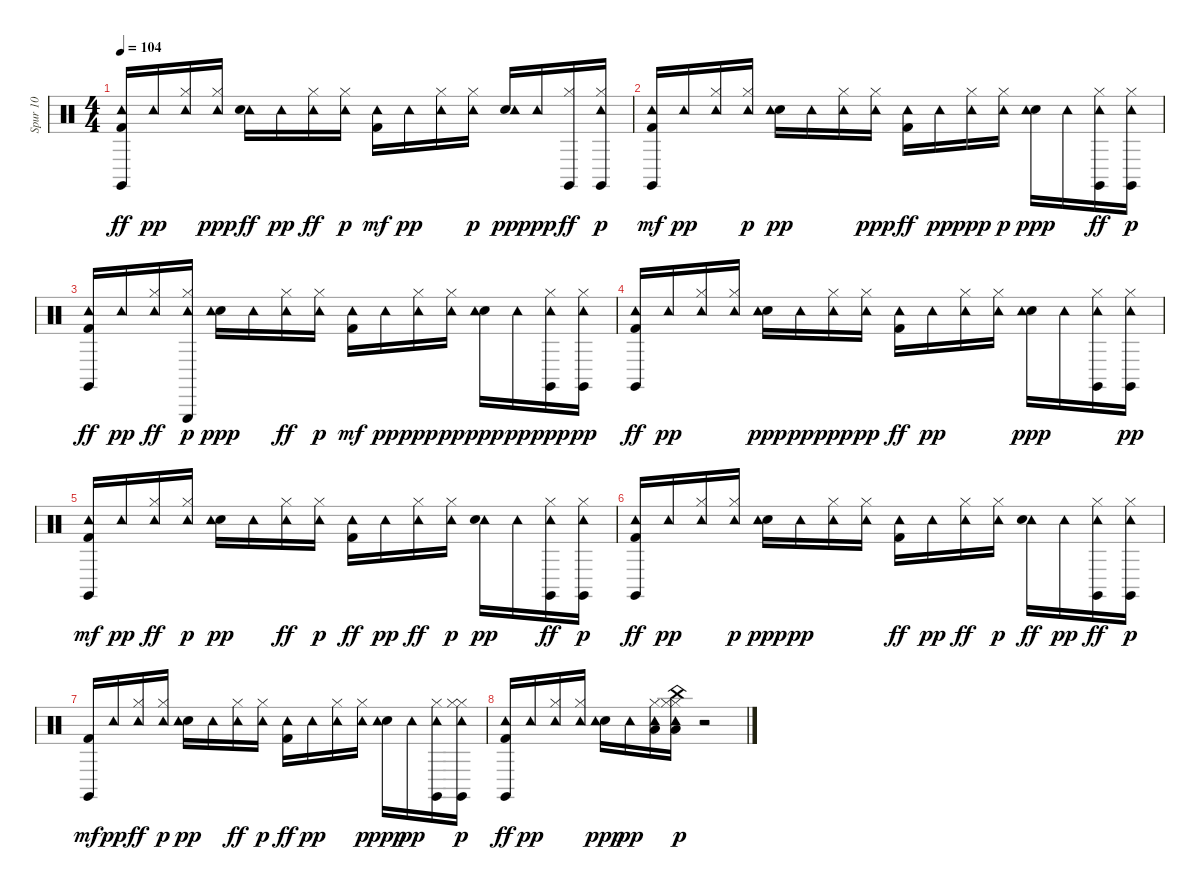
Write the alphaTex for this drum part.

\track ("Spur 10" "Spur 10") {instrument percussion}
\staff {score}
\articulation defaults
\ts (4 4)
\tempo 104
\clef neutral
\ks c
("Kick (hit) 2" "Tambourine (hit)" "Claves (hit)").16{dy ff} "Tambourine (hit)".16{dy pp} ("Hi-Hat (closed)" "Tambourine (hit)").16 ("Hi-Hat (closed)" "Tambourine (hit)").16{dy ppp} ("Tambourine (hit)" "Electric Snare (hit)").16{dy ff} "Tambourine (hit)".16{dy pp} ("Tambourine (hit)" "Hi-Hat (closed)").16{dy ff} ("Tambourine (hit)" "Hi-Hat (closed)").16{dy p} ("Kick (hit) 2" "Tambourine (hit)").16{dy mf} "Tambourine (hit)".16{dy pp} ("Hi-Hat (closed)" "Tambourine (hit)").16 ("Tambourine (hit)" "Hi-Hat (closed)").16{dy p} ("Electric Snare (hit)" "Tambourine (hit)").16{dy pp} "Tambourine (hit)".16{dy ppp} ("Hi-Hat (closed)" "Claves (hit)").16{dy ff} ("Claves (hit)" "Tambourine (hit)" "Hi-Hat (closed)").16{dy p} |
("Kick (hit) 2" "Tambourine (hit)" "Claves (hit)").16{dy mf} "Tambourine (hit)".16{dy pp} ("Hi-Hat (closed)" "Tambourine (hit)").16 ("Tambourine (hit)" "Hi-Hat (closed)").16{dy p} ("Electric Snare (hit)" "Tambourine (hit)").16{dy pp} "Tambourine (hit)".16 ("Hi-Hat (closed)" "Tambourine (hit)").16 ("Hi-Hat (closed)" "Tambourine (hit)").16{dy ppp} ("Tambourine (hit)" "Kick (hit) 2").16{dy ff} "Tambourine (hit)".16{dy pp} ("Hi-Hat (closed)" "Tambourine (hit)").16{dy ppp} ("Tambourine (hit)" "Hi-Hat (closed)").16{dy p} ("Electric Snare (hit)" "Tambourine (hit)").16{dy ppp} "Tambourine (hit)".16 ("Claves (hit)" "Tambourine (hit)" "Hi-Hat (closed)").16{dy ff} ("Claves (hit)" "Tambourine (hit)" "Hi-Hat (closed)").16{dy p} |
("Tambourine (hit)" "Kick (hit) 2" "Claves (hit)").16{dy ff} "Tambourine (hit)".16{dy pp} ("Tambourine (hit)" "Hi-Hat (closed)").16{dy ff} ("Tambourine (hit)" "Triangle (hit)" "Hi-Hat (closed)").16{dy p} ("Electric Snare (hit)" "Tambourine (hit)").16{dy ppp} "Tambourine (hit)".16 ("Tambourine (hit)" "Hi-Hat (closed)").16{dy ff} ("Tambourine (hit)" "Hi-Hat (closed)").16{dy p} ("Kick (hit) 2" "Tambourine (hit)").16{dy mf} "Tambourine (hit)".16{dy pp} ("Hi-Hat (closed)" "Tambourine (hit)").16{dy ppp} ("Hi-Hat (closed)" "Tambourine (hit)").16{dy pp} ("Electric Snare (hit)" "Tambourine (hit)").16{dy ppp} "Tambourine (hit)".16{dy pp} ("Hi-Hat (closed)" "Claves (hit)" "Tambourine (hit)").16{dy ppp} ("Hi-Hat (closed)" "Claves (hit)" "Tambourine (hit)").16{dy pp} |
("Tambourine (hit)" "Kick (hit) 2" "Claves (hit)").16{dy ff} "Tambourine (hit)".16{dy pp} ("Hi-Hat (closed)" "Tambourine (hit)").16 ("Hi-Hat (closed)" "Tambourine (hit)").16 ("Electric Snare (hit)" "Tambourine (hit)").16{dy ppp} "Tambourine (hit)".16{dy pp} ("Hi-Hat (closed)" "Tambourine (hit)").16{dy ppp} ("Hi-Hat (closed)" "Tambourine (hit)").16{dy pp} ("Tambourine (hit)" "Kick (hit) 2").16{dy ff} "Tambourine (hit)".16{dy pp} ("Hi-Hat (closed)" "Tambourine (hit)").16 ("Hi-Hat (closed)" "Tambourine (hit)").16 ("Electric Snare (hit)" "Tambourine (hit)").16{dy ppp} "Tambourine (hit)".16 ("Hi-Hat (closed)" "Claves (hit)" "Tambourine (hit)").16 ("Hi-Hat (closed)" "Claves (hit)" "Tambourine (hit)").16{dy pp} |
("Kick (hit) 2" "Tambourine (hit)" "Claves (hit)").16{dy mf} "Tambourine (hit)".16{dy pp} ("Tambourine (hit)" "Hi-Hat (closed)").16{dy ff} ("Tambourine (hit)" "Hi-Hat (closed)").16{dy p} ("Electric Snare (hit)" "Tambourine (hit)").16{dy pp} "Tambourine (hit)".16 ("Tambourine (hit)" "Hi-Hat (closed)").16{dy ff} ("Tambourine (hit)" "Hi-Hat (closed)").16{dy p} ("Tambourine (hit)" "Kick (hit) 2").16{dy ff} "Tambourine (hit)".16{dy pp} ("Tambourine (hit)" "Hi-Hat (closed)").16{dy ff} ("Tambourine (hit)" "Hi-Hat (closed)").16{dy p} ("Tambourine (hit)" "Electric Snare (hit)").16{dy pp} "Tambourine (hit)".16 ("Claves (hit)" "Tambourine (hit)" "Hi-Hat (closed)").16{dy ff} ("Claves (hit)" "Tambourine (hit)" "Hi-Hat (closed)").16{dy p} |
("Claves (hit)" "Tambourine (hit)" "Kick (hit) 2").16{dy ff} "Tambourine (hit)".16{dy pp} ("Hi-Hat (closed)" "Tambourine (hit)").16 ("Tambourine (hit)" "Hi-Hat (closed)").16{dy p} ("Electric Snare (hit)" "Tambourine (hit)").16{dy ppp} "Tambourine (hit)".16{dy pp} ("Hi-Hat (closed)" "Tambourine (hit)").16 ("Hi-Hat (closed)" "Tambourine (hit)").16 ("Kick (hit) 2" "Tambourine (hit)").16{dy ff} "Tambourine (hit)".16{dy pp} ("Tambourine (hit)" "Hi-Hat (closed)").16{dy ff} ("Tambourine (hit)" "Hi-Hat (closed)").16{dy p} ("Tambourine (hit)" "Electric Snare (hit)").16{dy ff} "Tambourine (hit)".16{dy pp} ("Tambourine (hit)" "Claves (hit)" "Hi-Hat (closed)").16{dy ff} ("Tambourine (hit)" "Claves (hit)" "Hi-Hat (closed)").16{dy p} |
("Kick (hit) 2" "Claves (hit)").16{dy mf} "Tambourine (hit)".16{dy pp} ("Tambourine (hit)" "Hi-Hat (closed)").16{dy ff} ("Tambourine (hit)" "Hi-Hat (closed)").16{dy p} ("Electric Snare (hit)" "Tambourine (hit)").16{dy pp} "Tambourine (hit)".16 ("Tambourine (hit)" "Hi-Hat (closed)").16{dy ff} ("Tambourine (hit)" "Hi-Hat (closed)").16{dy p} ("Tambourine (hit)" "Kick (hit) 2").16{dy ff} "Tambourine (hit)".16{dy pp} ("Hi-Hat (closed)" "Tambourine (hit)").16 ("Tambourine (hit)" "Hi-Hat (closed)").16{dy p} ("Electric Snare (hit)" "Tambourine (hit)").16{dy ppp} "Tambourine (hit)".16{dy pp} ("Hi-Hat (closed)" "Claves (hit)" "Tambourine (hit)").16 ("Hi-Hat (closed)" "Claves (hit)" "Tambourine (hit)" "Hi-Hat (closed)").16{dy p} |
("Tambourine (hit)" "Claves (hit)" "Kick (hit) 2").16{dy ff} "Tambourine (hit)".16{dy pp} ("Hi-Hat (closed)" "Tambourine (hit)").16 ("Hi-Hat (closed)" "Tambourine (hit)").16 ("Electric Snare (hit)" "Tambourine (hit)").16{dy ppp} "Tambourine (hit)".16{dy pp} ("Hi-Hat (closed)" "Low Floor Tom (hit)" "Tambourine (hit)").16 ("Hi-Hat (closed)" "China (hit)" "Low Floor Tom (hit)" "Hi-Hat (closed)" "Tambourine (hit)").16{dy p} r.2
